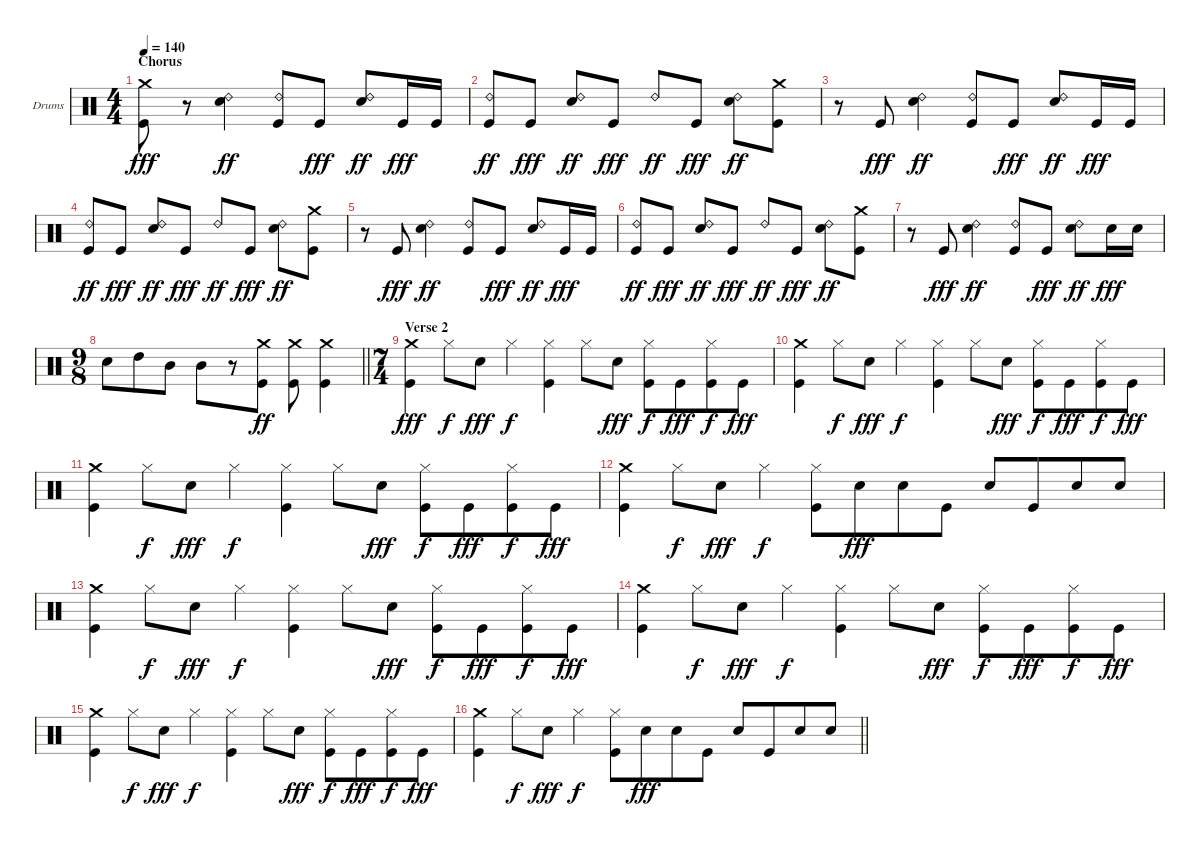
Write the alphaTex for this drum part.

\bracketExtendMode groupsimilarinstruments
\firstSystemTrackNameOrientation horizontal
\otherSystemsTrackNameOrientation horizontal
\track ("Drumkit" "Drums") {instrument percussion}
\staff {score}
\articulation defaults
\ts (4 4)
\section ("" "Chorus")
\tempo 140
\clef neutral
\ks c
("Crash medium (hit)" "Kick (hit)").8{dy fff} r.8 ("Ride (bell) 2" "Snare (hit) 2").4{dy ff} ("Ride (bell) 2" "Kick (hit)").8 "Kick (hit)".8{dy fff} ("Ride (bell) 2" "Snare (hit) 2").8{dy ff} "Kick (hit)".16{dy fff} "Kick (hit)".16 |
("Ride (bell) 2" "Kick (hit)").8{dy ff} "Kick (hit)".8{dy fff} ("Ride (bell) 2" "Snare (hit) 2").8{dy ff} "Kick (hit)".8{dy fff} "Ride (bell) 2".8{dy ff} "Kick (hit)".8{dy fff} ("Ride (bell) 2" "Snare (hit) 2").8{dy ff} ("Crash medium (hit)" "Kick (hit)").8 |
r.8 "Kick (hit)".8{dy fff} ("Ride (bell) 2" "Snare (hit) 2").4{dy ff} ("Ride (bell) 2" "Kick (hit)").8 "Kick (hit)".8{dy fff} ("Ride (bell) 2" "Snare (hit) 2").8{dy ff} "Kick (hit)".16{dy fff} "Kick (hit)".16 |
("Ride (bell) 2" "Kick (hit)").8{dy ff} "Kick (hit)".8{dy fff} ("Ride (bell) 2" "Snare (hit) 2").8{dy ff} "Kick (hit)".8{dy fff} "Ride (bell) 2".8{dy ff} "Kick (hit)".8{dy fff} ("Ride (bell) 2" "Snare (hit) 2").8{dy ff} ("Crash medium (hit)" "Kick (hit)").8 |
r.8 "Kick (hit)".8{dy fff} ("Ride (bell) 2" "Snare (hit) 2").4{dy ff} ("Ride (bell) 2" "Kick (hit)").8 "Kick (hit)".8{dy fff} ("Ride (bell) 2" "Snare (hit) 2").8{dy ff} "Kick (hit)".16{dy fff} "Kick (hit)".16 |
("Ride (bell) 2" "Kick (hit)").8{dy ff} "Kick (hit)".8{dy fff} ("Ride (bell) 2" "Snare (hit) 2").8{dy ff} "Kick (hit)".8{dy fff} "Ride (bell) 2".8{dy ff} "Kick (hit)".8{dy fff} ("Ride (bell) 2" "Snare (hit) 2").8{dy ff} ("Crash medium (hit)" "Kick (hit)").8 |
r.8 "Kick (hit)".8{dy fff} ("Ride (bell) 2" "Snare (hit) 2").4{dy ff} ("Ride (bell) 2" "Kick (hit)").8 "Kick (hit)".8{dy fff} ("Ride (bell) 2" "Snare (hit) 2").8{dy ff} "Snare (hit) 2".16{dy fff} "Snare (hit) 2".16 |
\ts (9 8)
\beaming (8 3 3 3)
\barLineRight lightlight "Snare (hit) 2".8 "High Tom (hit)".8 "Mid Tom (hit)".8 "Mid Tom (hit)".8
r.8 ("Crash medium (hit)" "Kick (hit)").8{dy ff} ("Crash medium (hit)" "Kick (hit)").8 ("Crash medium (hit)" "Kick (hit)").4 |
\ts (7 4)
\beaming (8 6 4 4)
\section ("" "Verse 2")
("Crash medium (hit)" "Kick (hit)").4{dy fff} "Hi-Hat (closed)".8{dy f} "Snare (hit) 2".8{dy fff} "Hi-Hat (closed)".4{dy f} ("Hi-Hat (closed)" "Kick (hit)").4 "Hi-Hat (closed)".8 "Snare (hit) 2".8{dy fff} ("Hi-Hat (closed)" "Kick (hit)").8{dy f} "Kick (hit)".8{dy fff} ("Hi-Hat (closed)" "Kick (hit)").8{dy f} "Kick (hit)".8{dy fff} |
("Crash medium (hit)" "Kick (hit)").4 "Hi-Hat (closed)".8{dy f} "Snare (hit) 2".8{dy fff} "Hi-Hat (closed)".4{dy f} ("Hi-Hat (closed)" "Kick (hit)").4 "Hi-Hat (closed)".8 "Snare (hit) 2".8{dy fff} ("Hi-Hat (closed)" "Kick (hit)").8{dy f} "Kick (hit)".8{dy fff} ("Hi-Hat (closed)" "Kick (hit)").8{dy f} "Kick (hit)".8{dy fff} |
("Crash medium (hit)" "Kick (hit)").4 "Hi-Hat (closed)".8{dy f} "Snare (hit) 2".8{dy fff} "Hi-Hat (closed)".4{dy f} ("Hi-Hat (closed)" "Kick (hit)").4 "Hi-Hat (closed)".8 "Snare (hit) 2".8{dy fff} ("Hi-Hat (closed)" "Kick (hit)").8{dy f} "Kick (hit)".8{dy fff} ("Hi-Hat (closed)" "Kick (hit)").8{dy f} "Kick (hit)".8{dy fff} |
("Crash medium (hit)" "Kick (hit)").4 "Hi-Hat (closed)".8{dy f} "Snare (hit) 2".8{dy fff} "Hi-Hat (closed)".4{dy f} ("Hi-Hat (closed)" "Kick (hit)").8 "Snare (hit) 2".8{dy fff} "Snare (hit) 2".8 "Kick (hit)".8 "Snare (hit) 2".8 "Kick (hit)".8 "Snare (hit) 2".8 "Snare (hit) 2".8 |
("Crash medium (hit)" "Kick (hit)").4 "Hi-Hat (closed)".8{dy f} "Snare (hit) 2".8{dy fff} "Hi-Hat (closed)".4{dy f} ("Hi-Hat (closed)" "Kick (hit)").4 "Hi-Hat (closed)".8 "Snare (hit) 2".8{dy fff} ("Hi-Hat (closed)" "Kick (hit)").8{dy f} "Kick (hit)".8{dy fff} ("Hi-Hat (closed)" "Kick (hit)").8{dy f} "Kick (hit)".8{dy fff} |
("Crash medium (hit)" "Kick (hit)").4 "Hi-Hat (closed)".8{dy f} "Snare (hit) 2".8{dy fff} "Hi-Hat (closed)".4{dy f} ("Hi-Hat (closed)" "Kick (hit)").4 "Hi-Hat (closed)".8 "Snare (hit) 2".8{dy fff} ("Hi-Hat (closed)" "Kick (hit)").8{dy f} "Kick (hit)".8{dy fff} ("Hi-Hat (closed)" "Kick (hit)").8{dy f} "Kick (hit)".8{dy fff} |
("Crash medium (hit)" "Kick (hit)").4 "Hi-Hat (closed)".8{dy f} "Snare (hit) 2".8{dy fff} "Hi-Hat (closed)".4{dy f} ("Hi-Hat (closed)" "Kick (hit)").4 "Hi-Hat (closed)".8 "Snare (hit) 2".8{dy fff} ("Hi-Hat (closed)" "Kick (hit)").8{dy f} "Kick (hit)".8{dy fff} ("Hi-Hat (closed)" "Kick (hit)").8{dy f} "Kick (hit)".8{dy fff} |
\barLineRight lightlight
("Crash medium (hit)" "Kick (hit)").4 "Hi-Hat (closed)".8{dy f} "Snare (hit) 2".8{dy fff} "Hi-Hat (closed)".4{dy f} ("Hi-Hat (closed)" "Kick (hit)").8 "Snare (hit) 2".8{dy fff} "Snare (hit) 2".8 "Kick (hit)".8 "Snare (hit) 2".8 "Kick (hit)".8 "Snare (hit) 2".8 "Snare (hit) 2".8
